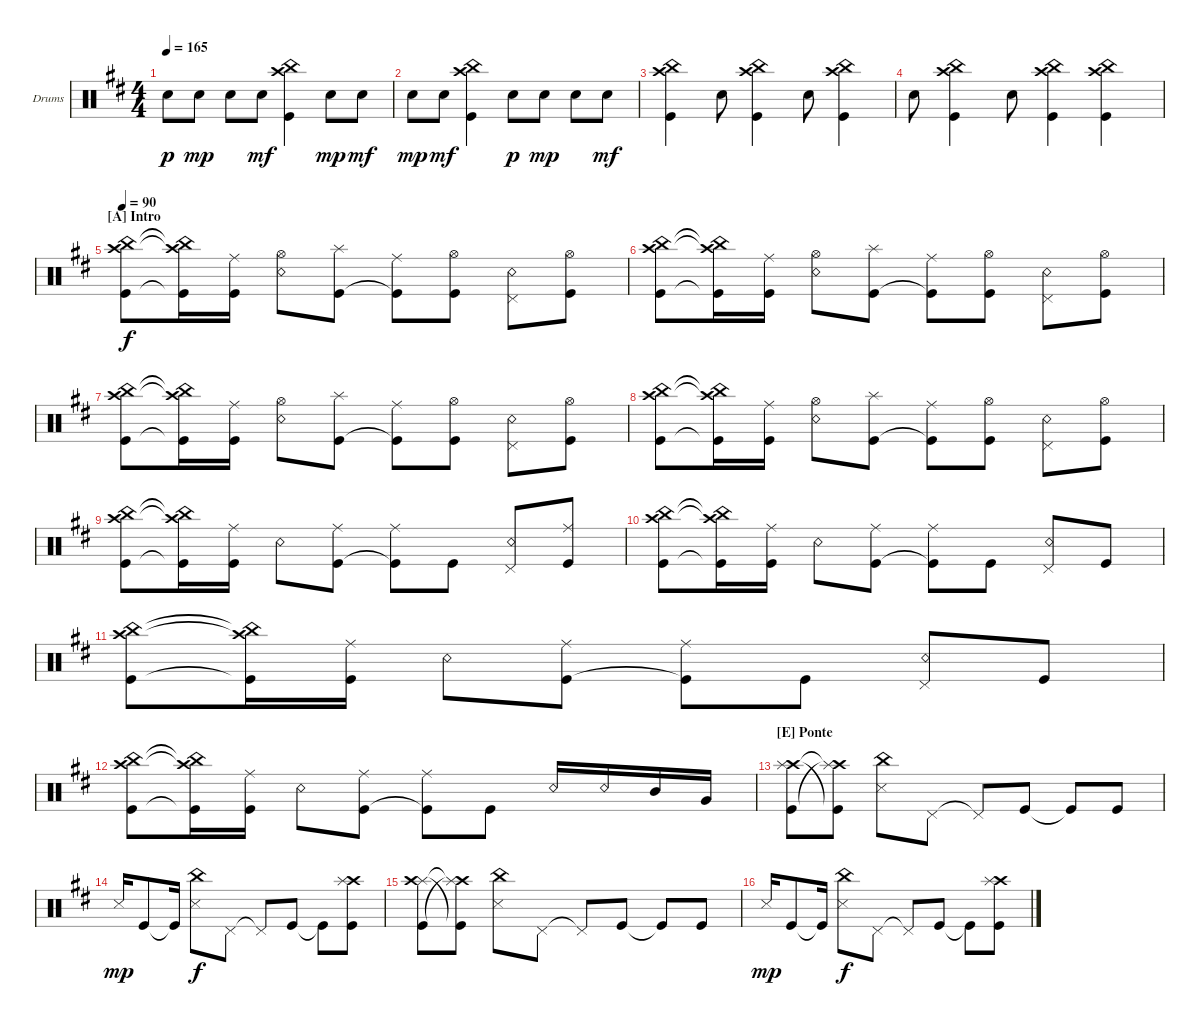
\defaultSystemsLayout 4
\bracketExtendMode groupsimilarinstruments
\firstSystemTrackNameOrientation horizontal
\otherSystemsTrackNameOrientation horizontal
\track ("Bateria" "Drums") {multiBarRest instrument percussion}
\staff {score}
\articulation defaults
\ts (4 4)
\tempo 165
\clef neutral
\ks d "Snare (hit) 2".8{dy p} "Snare (hit) 2".8{dy mp} "Snare (hit) 2".8 "Snare (hit) 2".8{dy mf}
("Crash high (hit)" "China (hit)" "Kick (hit)").4 "Snare (hit) 2".8{dy mp} "Snare (hit) 2".8{dy mf} |
"Snare (hit) 2".8{dy mp} "Snare (hit) 2".8{dy mf} ("Crash high (hit)" "China (hit)" "Kick (hit)").4 "Snare (hit) 2".8{dy p} "Snare (hit) 2".8{dy mp} "Snare (hit) 2".8 "Snare (hit) 2".8{dy mf} |
("Crash high (hit)" "China (hit)" "Kick (hit)").4 "Snare (hit) 2".8 ("Crash high (hit)" "China (hit)" "Kick (hit)").4 "Snare (hit) 2".8 ("Crash high (hit)" "China (hit)" "Kick (hit)").4 |
"Snare (hit) 2".8 ("Crash high (hit)" "China (hit)" "Kick (hit)").4 "Snare (hit) 2".8 ("Crash high (hit)" "China (hit)" "Kick (hit)").4 ("Crash high (hit)" "China (hit)" "Kick (hit)").4 |
\section ("A" "Intro")
\tempo 90
("Kick (hit)" "China (hit)" "Crash high (hit)").8{dy f} ("Kick (hit)"{t} "China (hit)"{t} "Crash high (hit)"{t}).16 ("Kick (hit)" "Ride (middle)").16 ("Snare (rim shot)" "Hi-Hat (open)").8 ("Kick (hit)" "Splash (hit)").8 ("Kick (hit)"{t} "Ride (middle)").8 ("Kick (hit)" "Hi-Hat (open)").8 ("Snare (rim shot)" "Pedal Hi-Hat (hit)").8 ("Kick (hit)" "Hi-Hat (open)").8 |
("Kick (hit)" "China (hit)" "Crash high (hit)").8 ("Kick (hit)"{t} "China (hit)"{t} "Crash high (hit)"{t}).16 ("Kick (hit)" "Ride (middle)").16 ("Snare (rim shot)" "Hi-Hat (open)").8 ("Kick (hit)" "Splash (hit)").8 ("Kick (hit)"{t} "Ride (middle)").8 ("Kick (hit)" "Hi-Hat (open)").8 ("Snare (rim shot)" "Pedal Hi-Hat (hit)").8 ("Kick (hit)" "Hi-Hat (open)").8 |
("Kick (hit)" "China (hit)" "Crash high (hit)").8 ("Kick (hit)"{t} "China (hit)"{t} "Crash high (hit)"{t}).16 ("Kick (hit)" "Ride (middle)").16 ("Snare (rim shot)" "Hi-Hat (open)").8 ("Kick (hit)" "Splash (hit)").8 ("Kick (hit)"{t} "Ride (middle)").8 ("Kick (hit)" "Hi-Hat (open)").8 ("Snare (rim shot)" "Pedal Hi-Hat (hit)").8 ("Kick (hit)" "Hi-Hat (open)").8 |
("Kick (hit)" "China (hit)" "Crash high (hit)").8 ("Kick (hit)"{t} "China (hit)"{t} "Crash high (hit)"{t}).16 ("Kick (hit)" "Ride (middle)").16 ("Snare (rim shot)" "Hi-Hat (open)").8 ("Kick (hit)" "Splash (hit)").8 ("Kick (hit)"{t} "Ride (middle)").8 ("Kick (hit)" "Hi-Hat (open)").8 ("Snare (rim shot)" "Pedal Hi-Hat (hit)").8 ("Kick (hit)" "Hi-Hat (open)").8 |
("Kick (hit)" "China (hit)" "Crash high (hit)").8 ("Kick (hit)"{t} "China (hit)"{t} "Crash high (hit)"{t}).16 ("Kick (hit)" "Ride (middle)").16 "Snare (rim shot)".8 ("Kick (hit)" "Ride (middle)").8 ("Kick (hit)"{t} "Ride (middle)").8 "Kick (hit)".8 ("Snare (rim shot)" "Pedal Hi-Hat (hit)").8 ("Kick (hit)" "Ride (middle)").8 |
("Kick (hit)" "China (hit)" "Crash high (hit)").8 ("Kick (hit)"{t} "China (hit)"{t} "Crash high (hit)"{t}).16 ("Kick (hit)" "Ride (middle)").16 "Snare (rim shot)".8 ("Kick (hit)" "Ride (middle)").8 ("Kick (hit)"{t} "Ride (middle)").8 "Kick (hit)".8 ("Snare (rim shot)" "Pedal Hi-Hat (hit)").8 "Kick (hit)".8 |
("Kick (hit)" "China (hit)" "Crash high (hit)").8 ("Kick (hit)"{t} "China (hit)"{t} "Crash high (hit)"{t}).16 ("Kick (hit)" "Ride (middle)").16 "Snare (rim shot)".8 ("Kick (hit)" "Ride (middle)").8 ("Kick (hit)"{t} "Ride (middle)").8 "Kick (hit)".8 ("Snare (rim shot)" "Pedal Hi-Hat (hit)").8 "Kick (hit)".8 |
("Kick (hit)" "China (hit)" "Crash high (hit)").8 ("Kick (hit)"{t} "China (hit)"{t} "Crash high (hit)"{t}).16 ("Kick (hit)" "Ride (middle)").16 "Snare (rim shot)".8 ("Kick (hit)" "Ride (middle)").8 ("Kick (hit)"{t} "Ride (middle)").8 "Kick (hit)".8 "Snare (rim shot)".16 "Snare (rim shot)".16 "Mid Tom (hit)".16 "Very Low Tom (hit)".16 |
\section ("E" "Ponte")
("Crash high (hit)" "Splash (hit)" "Kick (hit)").8 ("Kick (hit)"{t} "Crash high (hit)"{t} "Splash (hit)"{t}).8 ("China (hit)" "Snare (side stick) 3").8 "Pedal Hi-Hat (hit)".8 "Pedal Hi-Hat (hit)"{t}.8 "Kick (hit)".8 "Kick (hit)"{t}.8 "Kick (hit)".8 |
"Snare (side stick) 3".16{dy mp} "Kick (hit)".8 "Kick (hit)"{t}.16 ("China (hit)" "Snare (side stick) 3").8{dy f} "Pedal Hi-Hat (hit)".8 "Pedal Hi-Hat (hit)"{t}.8 "Kick (hit)".8 "Kick (hit)"{t}.8 ("Kick (hit)" "Crash high (hit)" "Splash (hit)").8 |
("Splash (hit)" "Crash high (hit)" "Kick (hit)").8 ("Kick (hit)"{t} "Crash high (hit)"{t} "Splash (hit)"{t}).8 ("China (hit)" "Snare (side stick) 3").8 "Pedal Hi-Hat (hit)".8 "Pedal Hi-Hat (hit)"{t}.8 "Kick (hit)".8 "Kick (hit)"{t}.8 "Kick (hit)".8 |
"Snare (side stick) 3".16{dy mp} "Kick (hit)".8 "Kick (hit)"{t}.16 ("China (hit)" "Snare (side stick) 3").8{dy f} "Pedal Hi-Hat (hit)".8 "Pedal Hi-Hat (hit)"{t}.8 "Kick (hit)".8 "Kick (hit)"{t}.8 ("Kick (hit)" "Crash high (hit)" "Splash (hit)").8
